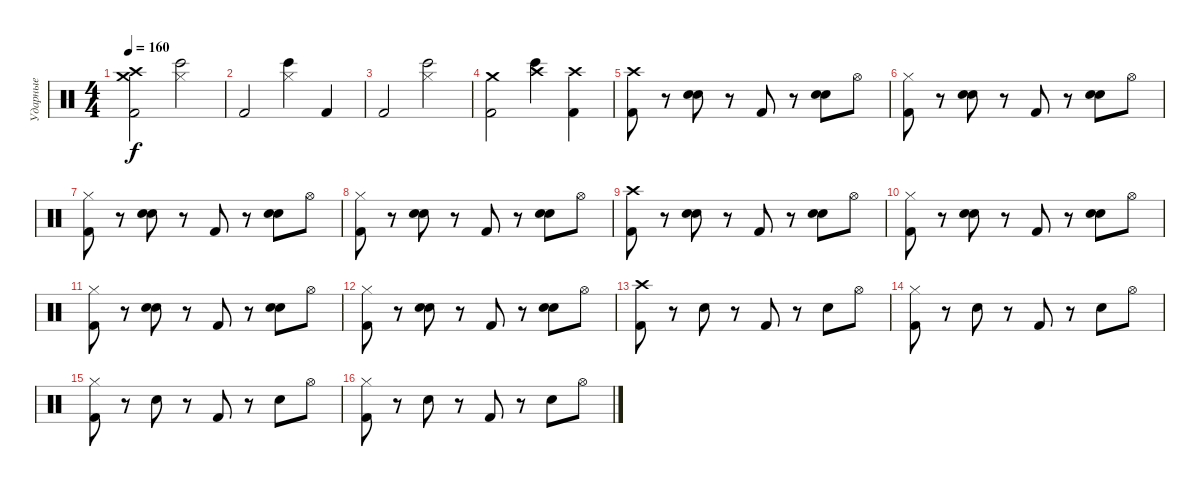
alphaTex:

\track ("Ударные" "Ударные") {instrument percussion}
\staff {score}
\articulation defaults
\ts (4 4)
\tempo 160
\clef neutral
\ks c
("Crash high (hit)" "Crash medium (hit)" "Kick (hit) 2").2{dy f} ("Hi-Hat (closed)" "Bongo High (hit)").2 |
"Kick (hit) 2".2 ("Hi-Hat (closed)" "Bongo High (hit)").4 "Kick (hit) 2".4 |
"Kick (hit) 2".2 ("Hi-Hat (closed)" "Bongo High (hit)").2 |
("Crash medium (hit)" "Kick (hit) 2").2 ("Crash high (hit)" "Bongo High (hit)").4 ("Crash high (hit)" "Kick (hit) 2").4 |
("Crash high (hit)" "Kick (hit) 2").8 r.8 ("Hand Clap (hit)" "Electric Snare (hit)").8 r.8 "Kick (hit) 2".8 r.8 ("Hand Clap (hit)" "Electric Snare (hit)").8 "Hi-Hat (open)".8 |
("Hi-Hat (closed)" "Kick (hit) 2").8 r.8 ("Hand Clap (hit)" "Electric Snare (hit)").8 r.8 "Kick (hit) 2".8 r.8 ("Hand Clap (hit)" "Electric Snare (hit)").8 "Hi-Hat (open)".8 |
("Hi-Hat (closed)" "Kick (hit) 2").8 r.8 ("Hand Clap (hit)" "Electric Snare (hit)").8 r.8 "Kick (hit) 2".8 r.8 ("Hand Clap (hit)" "Electric Snare (hit)").8 "Hi-Hat (open)".8 |
("Hi-Hat (closed)" "Kick (hit) 2").8 r.8 ("Hand Clap (hit)" "Electric Snare (hit)").8 r.8 "Kick (hit) 2".8 r.8 ("Hand Clap (hit)" "Electric Snare (hit)").8 "Hi-Hat (open)".8 |
("Crash high (hit)" "Kick (hit) 2").8 r.8 ("Hand Clap (hit)" "Electric Snare (hit)").8 r.8 "Kick (hit) 2".8 r.8 ("Hand Clap (hit)" "Electric Snare (hit)").8 "Hi-Hat (open)".8 |
("Hi-Hat (closed)" "Kick (hit) 2").8 r.8 ("Hand Clap (hit)" "Electric Snare (hit)").8 r.8 "Kick (hit) 2".8 r.8 ("Hand Clap (hit)" "Electric Snare (hit)").8 "Hi-Hat (open)".8 |
("Hi-Hat (closed)" "Kick (hit) 2").8 r.8 ("Hand Clap (hit)" "Electric Snare (hit)").8 r.8 "Kick (hit) 2".8 r.8 ("Hand Clap (hit)" "Electric Snare (hit)").8 "Hi-Hat (open)".8 |
("Hi-Hat (closed)" "Kick (hit) 2").8 r.8 ("Hand Clap (hit)" "Electric Snare (hit)").8 r.8 "Kick (hit) 2".8 r.8 ("Hand Clap (hit)" "Electric Snare (hit)").8 "Hi-Hat (open)".8 |
("Crash high (hit)" "Kick (hit) 2").8 r.8 "Electric Snare (hit)".8 r.8 "Kick (hit) 2".8 r.8 "Electric Snare (hit)".8 "Hi-Hat (open)".8 |
("Hi-Hat (closed)" "Kick (hit) 2").8 r.8 "Electric Snare (hit)".8 r.8 "Kick (hit) 2".8 r.8 "Electric Snare (hit)".8 "Hi-Hat (open)".8 |
("Hi-Hat (closed)" "Kick (hit) 2").8 r.8 "Electric Snare (hit)".8 r.8 "Kick (hit) 2".8 r.8 "Electric Snare (hit)".8 "Hi-Hat (open)".8 |
("Hi-Hat (closed)" "Kick (hit) 2").8 r.8 "Electric Snare (hit)".8 r.8 "Kick (hit) 2".8 r.8 "Electric Snare (hit)".8 "Hi-Hat (open)".8
